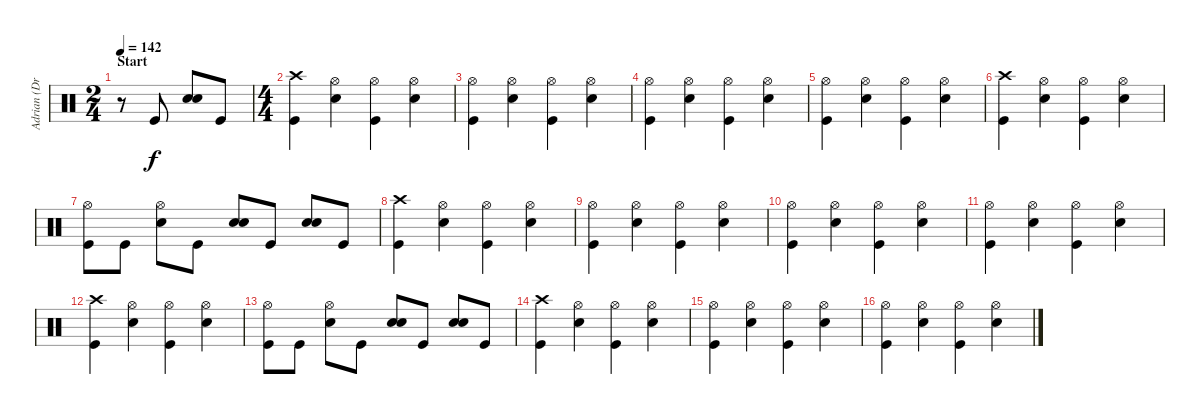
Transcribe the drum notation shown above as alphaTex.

\track ("Adrian (Drums)" "Adrian (Dr") {instrument percussion}
\staff {score}
\articulation defaults
\ts (2 4)
\section ("" "Start")
\tempo 142
\clef neutral
\ks c
r.8{dy f} "Kick (hit)".8 ("Electric Snare (hit)" "Electric Snare (hit)").8{bu 240} "Kick (hit)".8 |
\ts (4 4)
("Crash high (hit)" "Kick (hit)").4 ("Hi-Hat (open)" "Electric Snare (hit)").4 ("Hi-Hat (open)" "Kick (hit)").4 ("Hi-Hat (open)" "Electric Snare (hit)").4 |
("Hi-Hat (open)" "Kick (hit)").4 ("Hi-Hat (open)" "Electric Snare (hit)").4 ("Hi-Hat (open)" "Kick (hit)").4 ("Hi-Hat (open)" "Electric Snare (hit)").4 |
("Hi-Hat (open)" "Kick (hit)").4 ("Hi-Hat (open)" "Electric Snare (hit)").4 ("Hi-Hat (open)" "Kick (hit)").4 ("Hi-Hat (open)" "Electric Snare (hit)").4 |
("Hi-Hat (open)" "Kick (hit)").4 ("Hi-Hat (open)" "Electric Snare (hit)").4 ("Hi-Hat (open)" "Kick (hit)").4 ("Hi-Hat (open)" "Electric Snare (hit)").4 |
("Crash high (hit)" "Kick (hit)").4 ("Hi-Hat (open)" "Electric Snare (hit)").4 ("Hi-Hat (open)" "Kick (hit)").4 ("Hi-Hat (open)" "Electric Snare (hit)").4 |
("Hi-Hat (open)" "Kick (hit)").8 "Kick (hit)".8 ("Hi-Hat (open)" "Electric Snare (hit)").8 "Kick (hit)".8 ("Electric Snare (hit)" "Electric Snare (hit)").8{bu 240} "Kick (hit)".8 ("Electric Snare (hit)" "Electric Snare (hit)").8{bu 240} "Kick (hit)".8 |
("Crash high (hit)" "Kick (hit)").4 ("Hi-Hat (open)" "Electric Snare (hit)").4 ("Hi-Hat (open)" "Kick (hit)").4 ("Hi-Hat (open)" "Electric Snare (hit)").4 |
("Hi-Hat (open)" "Kick (hit)").4 ("Hi-Hat (open)" "Electric Snare (hit)").4 ("Hi-Hat (open)" "Kick (hit)").4 ("Hi-Hat (open)" "Electric Snare (hit)").4 |
("Hi-Hat (open)" "Kick (hit)").4 ("Hi-Hat (open)" "Electric Snare (hit)").4 ("Hi-Hat (open)" "Kick (hit)").4 ("Hi-Hat (open)" "Electric Snare (hit)").4 |
("Hi-Hat (open)" "Kick (hit)").4 ("Hi-Hat (open)" "Electric Snare (hit)").4 ("Hi-Hat (open)" "Kick (hit)").4 ("Hi-Hat (open)" "Electric Snare (hit)").4 |
("Crash high (hit)" "Kick (hit)").4 ("Hi-Hat (open)" "Electric Snare (hit)").4 ("Hi-Hat (open)" "Kick (hit)").4 ("Hi-Hat (open)" "Electric Snare (hit)").4 |
("Hi-Hat (open)" "Kick (hit)").8 "Kick (hit)".8 ("Hi-Hat (open)" "Electric Snare (hit)").8 "Kick (hit)".8 ("Electric Snare (hit)" "Electric Snare (hit)").8{bu 240} "Kick (hit)".8 ("Electric Snare (hit)" "Electric Snare (hit)").8{bu 240} "Kick (hit)".8 |
("Crash high (hit)" "Kick (hit)").4 ("Hi-Hat (open)" "Electric Snare (hit)").4 ("Hi-Hat (open)" "Kick (hit)").4 ("Hi-Hat (open)" "Electric Snare (hit)").4 |
("Hi-Hat (open)" "Kick (hit)").4 ("Hi-Hat (open)" "Electric Snare (hit)").4 ("Hi-Hat (open)" "Kick (hit)").4 ("Hi-Hat (open)" "Electric Snare (hit)").4 |
("Hi-Hat (open)" "Kick (hit)").4 ("Hi-Hat (open)" "Electric Snare (hit)").4 ("Hi-Hat (open)" "Kick (hit)").4 ("Hi-Hat (open)" "Electric Snare (hit)").4
